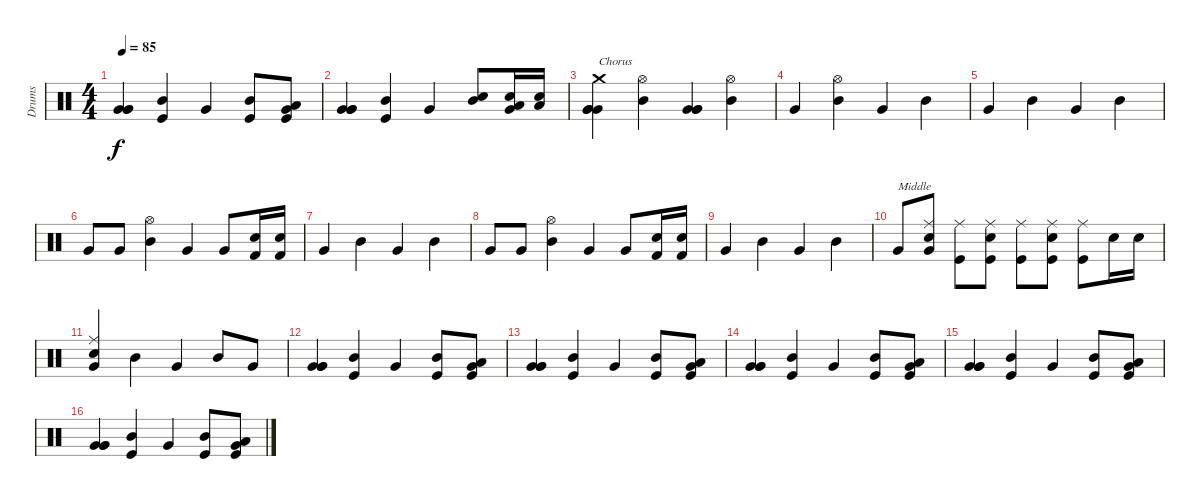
\track ("Drums" "Drums") {instrument percussion}
\staff {score}
\articulation defaults
\ts (4 4)
\tempo 85
\clef neutral
\ks c
("Very Low Tom (hit)" "Very Low Tom (hit)" "Very Low Tom (hit)").4{dy f} ("Mid Tom (hit)" "Kick (hit)").4 "Very Low Tom (hit)".4 ("Mid Tom (hit)" "Kick (hit)").8 ("Very Low Tom (hit)" "Kick (hit)" "Low Tom (hit)").8 |
("Very Low Tom (hit)" "Very Low Tom (hit)" "Very Low Tom (hit)").4 ("Mid Tom (hit)" "Kick (hit)").4 "Very Low Tom (hit)".4 ("Mid Tom (hit)" "Snare (hit) 2").8 ("Very Low Tom (hit)" "Snare (hit) 2" "Low Tom (hit)").16 ("Snare (hit) 2" "Low Tom (hit)").16 |
("Very Low Tom (hit)" "Very Low Tom (hit)" "Very Low Tom (hit)" "Crash medium (hit)").4{txt "Chorus"} ("Mid Tom (hit)" "Hi-Hat (open)").4 ("Very Low Tom (hit)" "Very Low Tom (hit)" "Very Low Tom (hit)").4 ("Mid Tom (hit)" "Hi-Hat (open)").4 |
"Very Low Tom (hit)".4 ("Mid Tom (hit)" "Hi-Hat (open)").4 "Very Low Tom (hit)".4 "Mid Tom (hit)".4 |
"Very Low Tom (hit)".4 "Mid Tom (hit)".4 "Very Low Tom (hit)".4 "Mid Tom (hit)".4 |
"Very Low Tom (hit)".8 "Very Low Tom (hit)".8 ("Mid Tom (hit)" "Hi-Hat (open)").4 "Very Low Tom (hit)".4 "Very Low Tom (hit)".8 ("Kick (hit) 2" "Snare (hit) 2").16 ("Kick (hit) 2" "Snare (hit) 2").16 |
"Very Low Tom (hit)".4 "Mid Tom (hit)".4 "Very Low Tom (hit)".4 "Mid Tom (hit)".4 |
"Very Low Tom (hit)".8 "Very Low Tom (hit)".8 ("Mid Tom (hit)" "Hi-Hat (open)").4 "Very Low Tom (hit)".4 "Very Low Tom (hit)".8 ("Kick (hit) 2" "Snare (hit) 2").16 ("Kick (hit) 2" "Snare (hit) 2").16 |
"Very Low Tom (hit)".4 "Mid Tom (hit)".4 "Very Low Tom (hit)".4 "Mid Tom (hit)".4 |
"Very Low Tom (hit)".8{txt "Middle"} ("Very Low Tom (hit)" "Ride (middle)" "Electric Snare (hit)").8 ("Kick (hit)" "Ride (middle)").8 ("Kick (hit)" "Ride (middle)" "Electric Snare (hit)").8 ("Kick (hit)" "Ride (middle)").8 ("Kick (hit)" "Ride (middle)" "Electric Snare (hit)").8 ("Kick (hit)" "Ride (middle)").8 "Snare (hit) 2".16 "Snare (hit) 2".16 |
("Very Low Tom (hit)" "Ride (middle)" "Electric Snare (hit)").4 "Mid Tom (hit)".4 "Very Low Tom (hit)".4 "Mid Tom (hit)".8 "Very Low Tom (hit)".8 |
("Very Low Tom (hit)" "Very Low Tom (hit)" "Very Low Tom (hit)").4 ("Mid Tom (hit)" "Kick (hit)").4 "Very Low Tom (hit)".4 ("Mid Tom (hit)" "Kick (hit)").8 ("Very Low Tom (hit)" "Kick (hit)" "Low Tom (hit)").8 |
("Very Low Tom (hit)" "Very Low Tom (hit)" "Very Low Tom (hit)").4 ("Mid Tom (hit)" "Kick (hit)").4 "Very Low Tom (hit)".4 ("Mid Tom (hit)" "Kick (hit)").8 ("Very Low Tom (hit)" "Kick (hit)" "Low Tom (hit)").8 |
("Very Low Tom (hit)" "Very Low Tom (hit)" "Very Low Tom (hit)").4 ("Mid Tom (hit)" "Kick (hit)").4 "Very Low Tom (hit)".4 ("Mid Tom (hit)" "Kick (hit)").8 ("Very Low Tom (hit)" "Kick (hit)" "Low Tom (hit)").8 |
("Very Low Tom (hit)" "Very Low Tom (hit)" "Very Low Tom (hit)").4 ("Mid Tom (hit)" "Kick (hit)").4 "Very Low Tom (hit)".4 ("Mid Tom (hit)" "Kick (hit)").8 ("Very Low Tom (hit)" "Kick (hit)" "Low Tom (hit)").8 |
("Very Low Tom (hit)" "Very Low Tom (hit)" "Very Low Tom (hit)").4 ("Mid Tom (hit)" "Kick (hit)").4 "Very Low Tom (hit)".4 ("Mid Tom (hit)" "Kick (hit)").8 ("Very Low Tom (hit)" "Kick (hit)" "Low Tom (hit)").8
